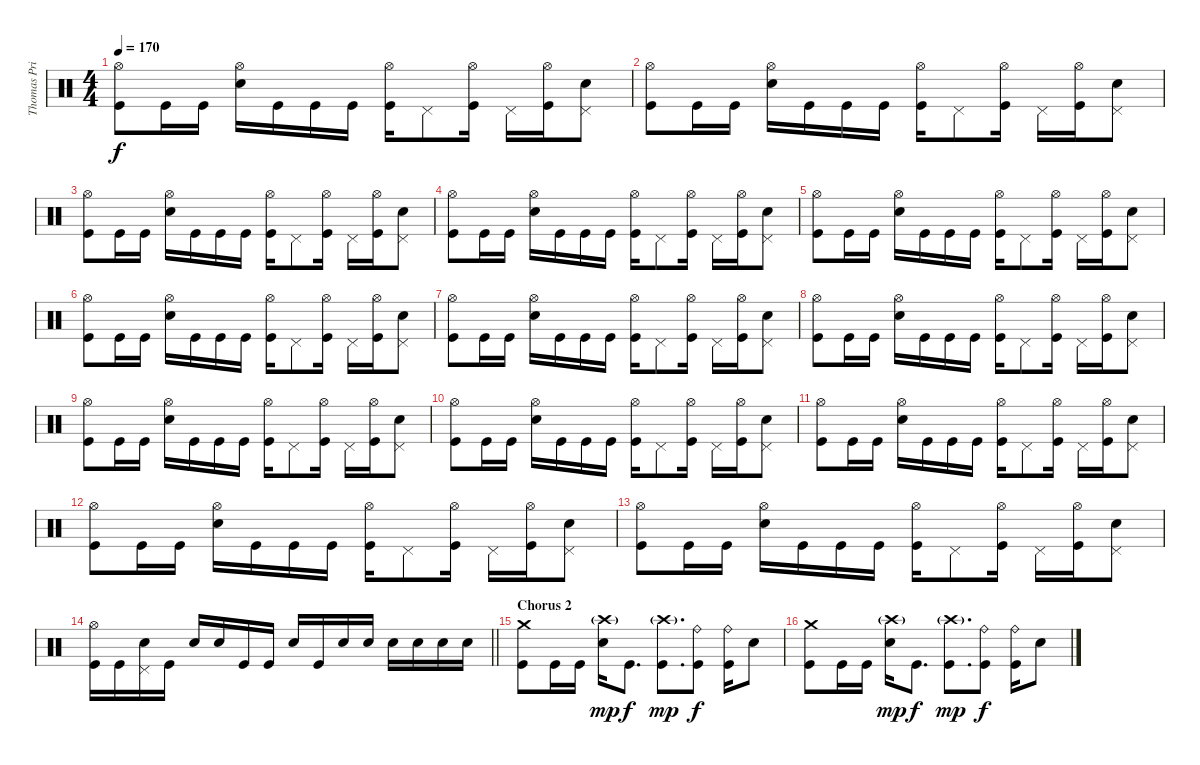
\track ("Thomas Pridgen [Drum]" "Thomas Pri") {instrument percussion}
\staff {score}
\articulation defaults
\ts (4 4)
\tempo 170
\clef neutral
\ks c
("Hi-Hat (open)" "Kick (hit)").8{dy f} "Kick (hit)".16 "Kick (hit)".16 ("Hi-Hat (open)" "Electric Snare (hit)").16 "Kick (hit)".16 "Kick (hit)".16 "Kick (hit)".16 ("Hi-Hat (open)" "Kick (hit)").16 "Pedal Hi-Hat (hit)".8 ("Hi-Hat (open)" "Kick (hit)").16 "Pedal Hi-Hat (hit)".16 ("Hi-Hat (open)" "Kick (hit)").16 ("Pedal Hi-Hat (hit)" "Electric Snare (hit)").8 |
("Hi-Hat (open)" "Kick (hit)").8 "Kick (hit)".16 "Kick (hit)".16 ("Hi-Hat (open)" "Electric Snare (hit)").16 "Kick (hit)".16 "Kick (hit)".16 "Kick (hit)".16 ("Hi-Hat (open)" "Kick (hit)").16 "Pedal Hi-Hat (hit)".8 ("Hi-Hat (open)" "Kick (hit)").16 "Pedal Hi-Hat (hit)".16 ("Hi-Hat (open)" "Kick (hit)").16 ("Pedal Hi-Hat (hit)" "Electric Snare (hit)").8 |
("Hi-Hat (open)" "Kick (hit)").8 "Kick (hit)".16 "Kick (hit)".16 ("Hi-Hat (open)" "Electric Snare (hit)").16 "Kick (hit)".16 "Kick (hit)".16 "Kick (hit)".16 ("Hi-Hat (open)" "Kick (hit)").16 "Pedal Hi-Hat (hit)".8 ("Hi-Hat (open)" "Kick (hit)").16 "Pedal Hi-Hat (hit)".16 ("Hi-Hat (open)" "Kick (hit)").16 ("Pedal Hi-Hat (hit)" "Electric Snare (hit)").8 |
("Hi-Hat (open)" "Kick (hit)").8 "Kick (hit)".16 "Kick (hit)".16 ("Hi-Hat (open)" "Electric Snare (hit)").16 "Kick (hit)".16 "Kick (hit)".16 "Kick (hit)".16 ("Hi-Hat (open)" "Kick (hit)").16 "Pedal Hi-Hat (hit)".8 ("Hi-Hat (open)" "Kick (hit)").16 "Pedal Hi-Hat (hit)".16 ("Hi-Hat (open)" "Kick (hit)").16 ("Pedal Hi-Hat (hit)" "Electric Snare (hit)").8 |
("Hi-Hat (open)" "Kick (hit)").8 "Kick (hit)".16 "Kick (hit)".16 ("Hi-Hat (open)" "Electric Snare (hit)").16 "Kick (hit)".16 "Kick (hit)".16 "Kick (hit)".16 ("Hi-Hat (open)" "Kick (hit)").16 "Pedal Hi-Hat (hit)".8 ("Hi-Hat (open)" "Kick (hit)").16 "Pedal Hi-Hat (hit)".16 ("Hi-Hat (open)" "Kick (hit)").16 ("Pedal Hi-Hat (hit)" "Electric Snare (hit)").8 |
("Hi-Hat (open)" "Kick (hit)").8 "Kick (hit)".16 "Kick (hit)".16 ("Hi-Hat (open)" "Electric Snare (hit)").16 "Kick (hit)".16 "Kick (hit)".16 "Kick (hit)".16 ("Hi-Hat (open)" "Kick (hit)").16 "Pedal Hi-Hat (hit)".8 ("Hi-Hat (open)" "Kick (hit)").16 "Pedal Hi-Hat (hit)".16 ("Hi-Hat (open)" "Kick (hit)").16 ("Pedal Hi-Hat (hit)" "Electric Snare (hit)").8 |
("Hi-Hat (open)" "Kick (hit)").8 "Kick (hit)".16 "Kick (hit)".16 ("Hi-Hat (open)" "Electric Snare (hit)").16 "Kick (hit)".16 "Kick (hit)".16 "Kick (hit)".16 ("Hi-Hat (open)" "Kick (hit)").16 "Pedal Hi-Hat (hit)".8 ("Hi-Hat (open)" "Kick (hit)").16 "Pedal Hi-Hat (hit)".16 ("Hi-Hat (open)" "Kick (hit)").16 ("Pedal Hi-Hat (hit)" "Electric Snare (hit)").8 |
("Hi-Hat (open)" "Kick (hit)").8 "Kick (hit)".16 "Kick (hit)".16 ("Hi-Hat (open)" "Electric Snare (hit)").16 "Kick (hit)".16 "Kick (hit)".16 "Kick (hit)".16 ("Hi-Hat (open)" "Kick (hit)").16 "Pedal Hi-Hat (hit)".8 ("Hi-Hat (open)" "Kick (hit)").16 "Pedal Hi-Hat (hit)".16 ("Hi-Hat (open)" "Kick (hit)").16 ("Pedal Hi-Hat (hit)" "Electric Snare (hit)").8 |
("Hi-Hat (open)" "Kick (hit)").8 "Kick (hit)".16 "Kick (hit)".16 ("Hi-Hat (open)" "Electric Snare (hit)").16 "Kick (hit)".16 "Kick (hit)".16 "Kick (hit)".16 ("Hi-Hat (open)" "Kick (hit)").16 "Pedal Hi-Hat (hit)".8 ("Hi-Hat (open)" "Kick (hit)").16 "Pedal Hi-Hat (hit)".16 ("Hi-Hat (open)" "Kick (hit)").16 ("Pedal Hi-Hat (hit)" "Electric Snare (hit)").8 |
("Hi-Hat (open)" "Kick (hit)").8 "Kick (hit)".16 "Kick (hit)".16 ("Hi-Hat (open)" "Electric Snare (hit)").16 "Kick (hit)".16 "Kick (hit)".16 "Kick (hit)".16 ("Hi-Hat (open)" "Kick (hit)").16 "Pedal Hi-Hat (hit)".8 ("Hi-Hat (open)" "Kick (hit)").16 "Pedal Hi-Hat (hit)".16 ("Hi-Hat (open)" "Kick (hit)").16 ("Pedal Hi-Hat (hit)" "Electric Snare (hit)").8 |
("Hi-Hat (open)" "Kick (hit)").8 "Kick (hit)".16 "Kick (hit)".16 ("Hi-Hat (open)" "Electric Snare (hit)").16 "Kick (hit)".16 "Kick (hit)".16 "Kick (hit)".16 ("Hi-Hat (open)" "Kick (hit)").16 "Pedal Hi-Hat (hit)".8 ("Hi-Hat (open)" "Kick (hit)").16 "Pedal Hi-Hat (hit)".16 ("Hi-Hat (open)" "Kick (hit)").16 ("Pedal Hi-Hat (hit)" "Electric Snare (hit)").8 |
("Hi-Hat (open)" "Kick (hit)").8 "Kick (hit)".16 "Kick (hit)".16 ("Hi-Hat (open)" "Electric Snare (hit)").16 "Kick (hit)".16 "Kick (hit)".16 "Kick (hit)".16 ("Hi-Hat (open)" "Kick (hit)").16 "Pedal Hi-Hat (hit)".8 ("Hi-Hat (open)" "Kick (hit)").16 "Pedal Hi-Hat (hit)".16 ("Hi-Hat (open)" "Kick (hit)").16 ("Pedal Hi-Hat (hit)" "Electric Snare (hit)").8 |
("Hi-Hat (open)" "Kick (hit)").8 "Kick (hit)".16 "Kick (hit)".16 ("Hi-Hat (open)" "Electric Snare (hit)").16 "Kick (hit)".16 "Kick (hit)".16 "Kick (hit)".16 ("Hi-Hat (open)" "Kick (hit)").16 "Pedal Hi-Hat (hit)".8 ("Hi-Hat (open)" "Kick (hit)").16 "Pedal Hi-Hat (hit)".16 ("Hi-Hat (open)" "Kick (hit)").16 ("Pedal Hi-Hat (hit)" "Electric Snare (hit)").8 |
\barLineRight lightlight
("Hi-Hat (open)" "Kick (hit)").16 "Kick (hit)".16 ("Pedal Hi-Hat (hit)" "Electric Snare (hit)").16 "Kick (hit)".16 "Electric Snare (hit)".16 "Electric Snare (hit)".16 "Kick (hit)".16 "Kick (hit)".16 "Electric Snare (hit)".16 "Kick (hit)".16 "Electric Snare (hit)".16 "Electric Snare (hit)".16 "Electric Snare (hit)".16 "Electric Snare (hit)".16 "Electric Snare (hit)".16 "Electric Snare (hit)".16 |
\section ("" "Chorus 2")
("Crash medium (hit)" "Kick (hit)").8 "Kick (hit)".16 "Kick (hit)".16 ("Crash high (hit)"{g} "Electric Snare (hit)").16{dy mp} "Kick (hit)".8{d dy f} ("Crash high (hit)"{g} "Kick (hit)").8{d dy mp} ("Ride (bell)" "Kick (hit)").8{dy f} ("Ride (bell)" "Kick (hit)").16 "Electric Snare (hit)".8 |
("Crash medium (hit)" "Kick (hit)").8 "Kick (hit)".16 "Kick (hit)".16 ("Crash high (hit)"{g} "Electric Snare (hit)").16{dy mp} "Kick (hit)".8{d dy f} ("Crash high (hit)"{g} "Kick (hit)").8{d dy mp} ("Ride (bell)" "Kick (hit)").8{dy f} ("Ride (bell)" "Kick (hit)").16 "Electric Snare (hit)".8
